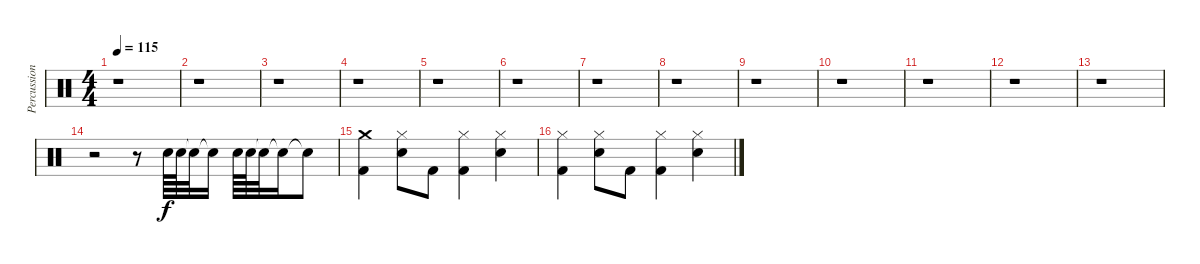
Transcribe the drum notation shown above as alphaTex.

\track ("Percussion" "Percussion") {instrument percussion}
\staff {score}
\articulation defaults
\ts (4 4)
\tempo 115
\clef neutral
\ks c
r.1{dy f} |
r.1 |
r.1 |
r.1 |
r.1 |
r.1 |
r.1 |
r.1 |
r.1 |
r.1 |
r.1 |
r.1 |
r.1 |
r.2 r.8 "Electric Snare (hit)".64 "Electric Snare (hit)".64 "Snare (hit)"{t}.32 "Snare (hit)"{t}.16 "Electric Snare (hit)".64 "Electric Snare (hit)".64 "Snare (hit)"{t}.32 "Snare (hit)"{t}.16 "Snare (hit)"{t}.8 |
("Crash medium (hit)" "Kick (hit) 2").4 ("Hi-Hat (closed)" "Electric Snare (hit)").8 "Kick (hit) 2".8 ("Hi-Hat (closed)" "Kick (hit) 2").4 ("Hi-Hat (closed)" "Electric Snare (hit)").4 |
("Hi-Hat (closed)" "Kick (hit) 2").4 ("Hi-Hat (closed)" "Electric Snare (hit)").8 "Kick (hit) 2".8 ("Hi-Hat (closed)" "Kick (hit) 2").4 ("Hi-Hat (closed)" "Electric Snare (hit)").4
